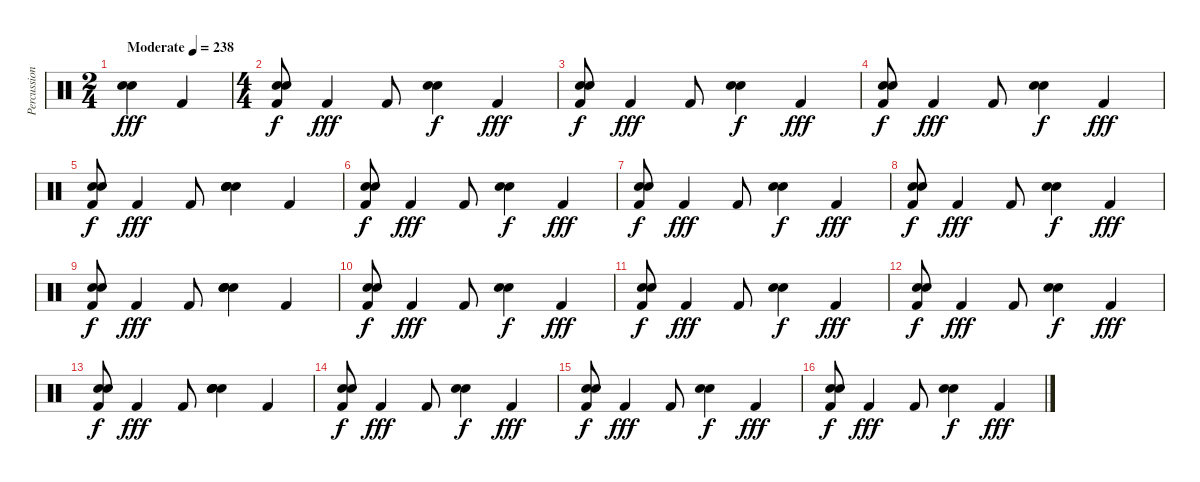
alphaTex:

\track ("Percussion" "Percussion") {instrument percussion}
\staff {score}
\articulation defaults
\ts (2 4)
\tempo (238 "Moderate")
\clef neutral
\ks c
("Snare (hit) 2" "Snare (hit) 2").4{bd 60 dy fff} "Kick (hit) 2".4 |
\ts (4 4)
("Hand Clap (hit)" "Hand Clap (hit)" "Kick (hit) 2").8{bd 480 dy f} "Kick (hit) 2".4{dy fff} "Kick (hit) 2".8 ("Hand Clap (hit)" "Hand Clap (hit)").4{bd 480 dy f} "Kick (hit) 2".4{dy fff} |
("Hand Clap (hit)" "Hand Clap (hit)" "Kick (hit) 2").8{bd 480 dy f} "Kick (hit) 2".4{dy fff} "Kick (hit) 2".8 ("Hand Clap (hit)" "Hand Clap (hit)").4{bd 480 dy f} "Kick (hit) 2".4{dy fff} |
("Hand Clap (hit)" "Hand Clap (hit)" "Kick (hit) 2").8{bd 480 dy f} "Kick (hit) 2".4{dy fff} "Kick (hit) 2".8 ("Hand Clap (hit)" "Hand Clap (hit)").4{bd 480 dy f} "Kick (hit) 2".4{dy fff} |
("Hand Clap (hit)" "Hand Clap (hit)" "Kick (hit) 2").8{bd 480 dy f} "Kick (hit) 2".4{dy fff} "Kick (hit) 2".8 ("Hand Clap (hit)" "Hand Clap (hit)" "Snare (hit) 2" "Snare (hit) 2").4{bd 480} "Kick (hit) 2".4 |
("Hand Clap (hit)" "Hand Clap (hit)" "Kick (hit) 2").8{bd 480 dy f} "Kick (hit) 2".4{dy fff} "Kick (hit) 2".8 ("Hand Clap (hit)" "Hand Clap (hit)").4{bd 480 dy f} "Kick (hit) 2".4{dy fff} |
("Hand Clap (hit)" "Hand Clap (hit)" "Kick (hit) 2").8{bd 480 dy f} "Kick (hit) 2".4{dy fff} "Kick (hit) 2".8 ("Hand Clap (hit)" "Hand Clap (hit)").4{bd 480 dy f} "Kick (hit) 2".4{dy fff} |
("Hand Clap (hit)" "Hand Clap (hit)" "Kick (hit) 2").8{bd 480 dy f} "Kick (hit) 2".4{dy fff} "Kick (hit) 2".8 ("Hand Clap (hit)" "Hand Clap (hit)").4{bd 480 dy f} "Kick (hit) 2".4{dy fff} |
("Hand Clap (hit)" "Hand Clap (hit)" "Kick (hit) 2").8{bd 480 dy f} "Kick (hit) 2".4{dy fff} "Kick (hit) 2".8 ("Hand Clap (hit)" "Hand Clap (hit)" "Snare (hit) 2" "Snare (hit) 2").4{bd 120} "Kick (hit) 2".4 |
("Hand Clap (hit)" "Hand Clap (hit)" "Kick (hit) 2").8{bd 480 dy f} "Kick (hit) 2".4{dy fff} "Kick (hit) 2".8 ("Hand Clap (hit)" "Hand Clap (hit)").4{bd 480 dy f} "Kick (hit) 2".4{dy fff} |
("Hand Clap (hit)" "Hand Clap (hit)" "Kick (hit) 2").8{bd 480 dy f} "Kick (hit) 2".4{dy fff} "Kick (hit) 2".8 ("Hand Clap (hit)" "Hand Clap (hit)").4{bd 480 dy f} "Kick (hit) 2".4{dy fff} |
("Hand Clap (hit)" "Hand Clap (hit)" "Kick (hit) 2").8{bd 480 dy f} "Kick (hit) 2".4{dy fff} "Kick (hit) 2".8 ("Hand Clap (hit)" "Hand Clap (hit)").4{bd 480 dy f} "Kick (hit) 2".4{dy fff} |
("Hand Clap (hit)" "Hand Clap (hit)" "Kick (hit) 2").8{bd 480 dy f} "Kick (hit) 2".4{dy fff} "Kick (hit) 2".8 ("Hand Clap (hit)" "Hand Clap (hit)" "Snare (hit) 2" "Snare (hit) 2").4{bd 480} "Kick (hit) 2".4 |
("Hand Clap (hit)" "Hand Clap (hit)" "Kick (hit) 2").8{bd 480 dy f} "Kick (hit) 2".4{dy fff} "Kick (hit) 2".8 ("Hand Clap (hit)" "Hand Clap (hit)").4{bd 480 dy f} "Kick (hit) 2".4{dy fff} |
("Hand Clap (hit)" "Hand Clap (hit)" "Kick (hit) 2").8{bd 480 dy f} "Kick (hit) 2".4{dy fff} "Kick (hit) 2".8 ("Hand Clap (hit)" "Hand Clap (hit)").4{bd 480 dy f} "Kick (hit) 2".4{dy fff} |
("Hand Clap (hit)" "Hand Clap (hit)" "Kick (hit) 2").8{bd 480 dy f} "Kick (hit) 2".4{dy fff} "Kick (hit) 2".8 ("Hand Clap (hit)" "Hand Clap (hit)").4{bd 480 dy f} "Kick (hit) 2".4{dy fff}
